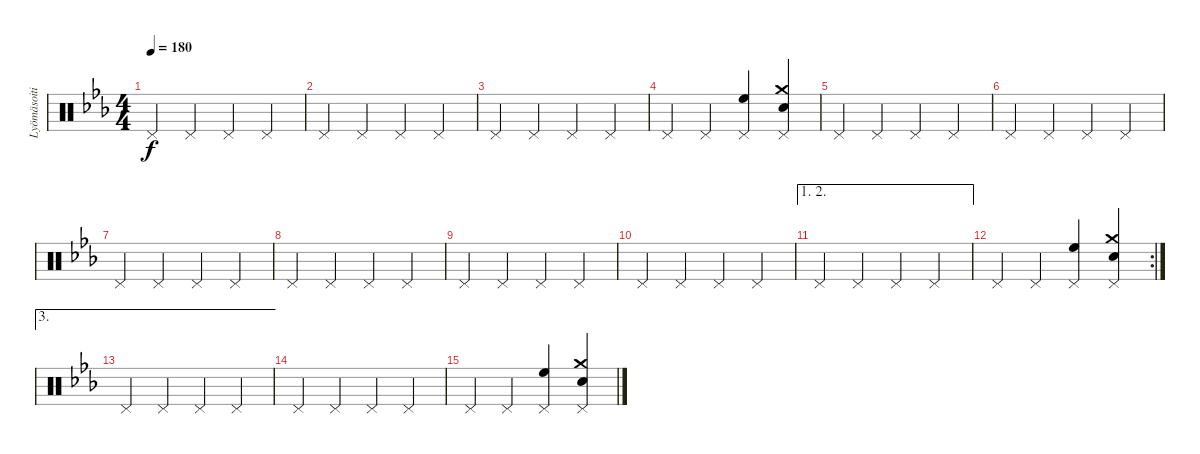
\track ("Lyömäsoitin" "Lyömäsoiti") {instrument percussion}
\staff {score}
\articulation defaults
\ts (4 4)
\tempo 180
\clef neutral
\ks eb "Pedal Hi-Hat (hit)".4{dy f} "Pedal Hi-Hat (hit)".4 "Pedal Hi-Hat (hit)".4 "Pedal Hi-Hat (hit)".4
|
"Pedal Hi-Hat (hit)".4 "Pedal Hi-Hat (hit)".4 "Pedal Hi-Hat (hit)".4 "Pedal Hi-Hat (hit)".4 |
"Pedal Hi-Hat (hit)".4 "Pedal Hi-Hat (hit)".4 "Pedal Hi-Hat (hit)".4 "Pedal Hi-Hat (hit)".4 |
"Pedal Hi-Hat (hit)".4 "Pedal Hi-Hat (hit)".4 ("Pedal Hi-Hat (hit)" "High Floor Tom (hit)").4 ("Pedal Hi-Hat (hit)" "Crash medium (hit)" "Snare (hit) 2").4 |
"Pedal Hi-Hat (hit)".4 "Pedal Hi-Hat (hit)".4 "Pedal Hi-Hat (hit)".4 "Pedal Hi-Hat (hit)".4 |
"Pedal Hi-Hat (hit)".4 "Pedal Hi-Hat (hit)".4 "Pedal Hi-Hat (hit)".4 "Pedal Hi-Hat (hit)".4 |
"Pedal Hi-Hat (hit)".4 "Pedal Hi-Hat (hit)".4 "Pedal Hi-Hat (hit)".4 "Pedal Hi-Hat (hit)".4 |
"Pedal Hi-Hat (hit)".4 "Pedal Hi-Hat (hit)".4 "Pedal Hi-Hat (hit)".4 "Pedal Hi-Hat (hit)".4 |
"Pedal Hi-Hat (hit)".4 "Pedal Hi-Hat (hit)".4 "Pedal Hi-Hat (hit)".4 "Pedal Hi-Hat (hit)".4 |
"Pedal Hi-Hat (hit)".4 "Pedal Hi-Hat (hit)".4 "Pedal Hi-Hat (hit)".4 "Pedal Hi-Hat (hit)".4 |
\ae (1 2)
"Pedal Hi-Hat (hit)".4 "Pedal Hi-Hat (hit)".4 "Pedal Hi-Hat (hit)".4 "Pedal Hi-Hat (hit)".4 |
\rc 2 "Pedal Hi-Hat (hit)".4 "Pedal Hi-Hat (hit)".4
("Pedal Hi-Hat (hit)" "High Floor Tom (hit)").4 ("Pedal Hi-Hat (hit)" "Crash medium (hit)" "Snare (hit) 2").4 |
\ae 3 "Pedal Hi-Hat (hit)".4 "Pedal Hi-Hat (hit)".4 "Pedal Hi-Hat (hit)".4 "Pedal Hi-Hat (hit)".4
|
"Pedal Hi-Hat (hit)".4 "Pedal Hi-Hat (hit)".4 "Pedal Hi-Hat (hit)".4 "Pedal Hi-Hat (hit)".4 |
"Pedal Hi-Hat (hit)".4 "Pedal Hi-Hat (hit)".4 ("Pedal Hi-Hat (hit)" "High Floor Tom (hit)").4 ("Pedal Hi-Hat (hit)" "Crash medium (hit)" "Snare (hit) 2").4
